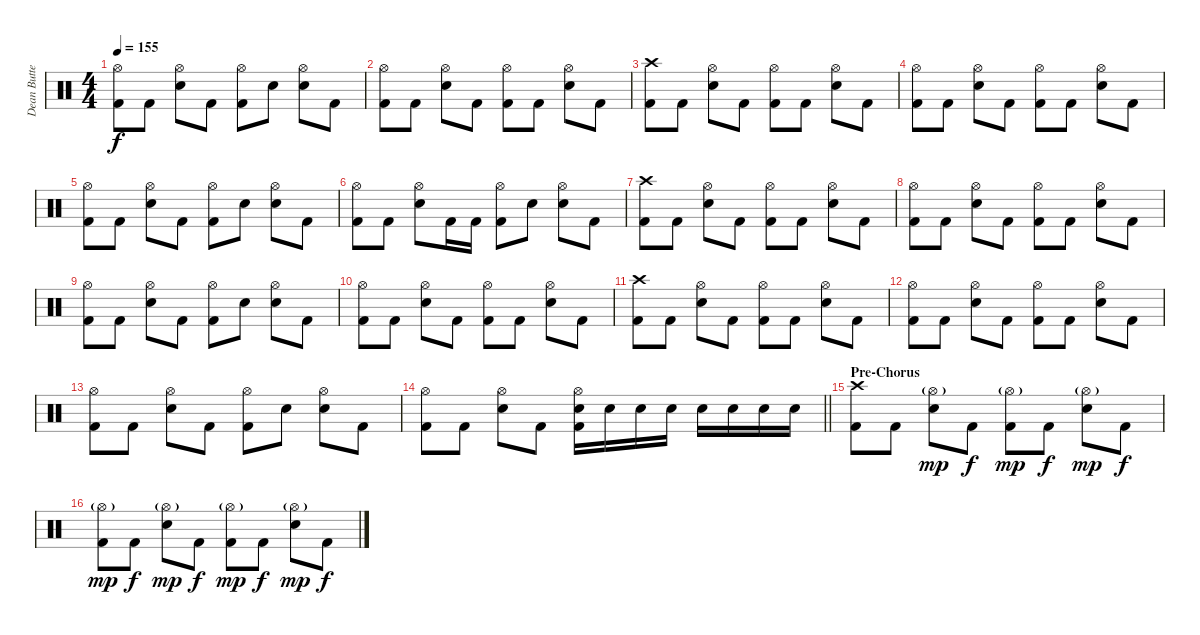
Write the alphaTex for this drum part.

\track ("Dean Butterworth [Drums]" "Dean Butte") {solo instrument percussion}
\staff {score}
\articulation defaults
\ts (4 4)
\tempo 155
\clef neutral
\ks c
("Hi-Hat (open)" "Kick (hit) 2").8{dy f} "Kick (hit) 2".8 ("Hi-Hat (open)" "Electric Snare (hit)").8 "Kick (hit) 2".8 ("Hi-Hat (open)" "Kick (hit) 2").8 "Electric Snare (hit)".8 ("Hi-Hat (open)" "Electric Snare (hit)").8 "Kick (hit) 2".8 |
("Hi-Hat (open)" "Kick (hit) 2").8 "Kick (hit) 2".8 ("Hi-Hat (open)" "Electric Snare (hit)").8 "Kick (hit) 2".8 ("Hi-Hat (open)" "Kick (hit) 2").8 "Kick (hit) 2".8 ("Hi-Hat (open)" "Electric Snare (hit)").8 "Kick (hit) 2".8 |
("Crash high (hit)" "Kick (hit) 2").8 "Kick (hit) 2".8 ("Hi-Hat (open)" "Electric Snare (hit)").8 "Kick (hit) 2".8 ("Hi-Hat (open)" "Kick (hit) 2").8 "Kick (hit) 2".8 ("Hi-Hat (open)" "Electric Snare (hit)").8 "Kick (hit) 2".8 |
("Hi-Hat (open)" "Kick (hit) 2").8 "Kick (hit) 2".8 ("Hi-Hat (open)" "Electric Snare (hit)").8 "Kick (hit) 2".8 ("Hi-Hat (open)" "Kick (hit) 2").8 "Kick (hit) 2".8 ("Hi-Hat (open)" "Electric Snare (hit)").8 "Kick (hit) 2".8 |
("Hi-Hat (open)" "Kick (hit) 2").8 "Kick (hit) 2".8 ("Hi-Hat (open)" "Electric Snare (hit)").8 "Kick (hit) 2".8 ("Hi-Hat (open)" "Kick (hit) 2").8 "Electric Snare (hit)".8 ("Hi-Hat (open)" "Electric Snare (hit)").8 "Kick (hit) 2".8 |
("Hi-Hat (open)" "Kick (hit) 2").8 "Kick (hit) 2".8 ("Hi-Hat (open)" "Electric Snare (hit)").8 "Kick (hit) 2".16 "Kick (hit) 2".16 ("Hi-Hat (open)" "Kick (hit) 2").8 "Electric Snare (hit)".8 ("Hi-Hat (open)" "Electric Snare (hit)").8 "Kick (hit) 2".8 |
("Crash high (hit)" "Kick (hit) 2").8 "Kick (hit) 2".8 ("Hi-Hat (open)" "Electric Snare (hit)").8 "Kick (hit) 2".8 ("Hi-Hat (open)" "Kick (hit) 2").8 "Kick (hit) 2".8 ("Hi-Hat (open)" "Electric Snare (hit)").8 "Kick (hit) 2".8 |
("Hi-Hat (open)" "Kick (hit) 2").8 "Kick (hit) 2".8 ("Hi-Hat (open)" "Electric Snare (hit)").8 "Kick (hit) 2".8 ("Hi-Hat (open)" "Kick (hit) 2").8 "Kick (hit) 2".8 ("Hi-Hat (open)" "Electric Snare (hit)").8 "Kick (hit) 2".8 |
("Hi-Hat (open)" "Kick (hit) 2").8 "Kick (hit) 2".8 ("Hi-Hat (open)" "Electric Snare (hit)").8 "Kick (hit) 2".8 ("Hi-Hat (open)" "Kick (hit) 2").8 "Electric Snare (hit)".8 ("Hi-Hat (open)" "Electric Snare (hit)").8 "Kick (hit) 2".8 |
("Hi-Hat (open)" "Kick (hit) 2").8 "Kick (hit) 2".8 ("Hi-Hat (open)" "Electric Snare (hit)").8 "Kick (hit) 2".8 ("Hi-Hat (open)" "Kick (hit) 2").8 "Kick (hit) 2".8 ("Hi-Hat (open)" "Electric Snare (hit)").8 "Kick (hit) 2".8 |
("Crash high (hit)" "Kick (hit) 2").8 "Kick (hit) 2".8 ("Hi-Hat (open)" "Electric Snare (hit)").8 "Kick (hit) 2".8 ("Hi-Hat (open)" "Kick (hit) 2").8 "Kick (hit) 2".8 ("Hi-Hat (open)" "Electric Snare (hit)").8 "Kick (hit) 2".8 |
("Hi-Hat (open)" "Kick (hit) 2").8 "Kick (hit) 2".8 ("Hi-Hat (open)" "Electric Snare (hit)").8 "Kick (hit) 2".8 ("Hi-Hat (open)" "Kick (hit) 2").8 "Kick (hit) 2".8 ("Hi-Hat (open)" "Electric Snare (hit)").8 "Kick (hit) 2".8 |
("Hi-Hat (open)" "Kick (hit) 2").8 "Kick (hit) 2".8 ("Hi-Hat (open)" "Electric Snare (hit)").8 "Kick (hit) 2".8 ("Hi-Hat (open)" "Kick (hit) 2").8 "Electric Snare (hit)".8 ("Hi-Hat (open)" "Electric Snare (hit)").8 "Kick (hit) 2".8 |
\barLineRight lightlight
("Hi-Hat (open)" "Kick (hit) 2").8 "Kick (hit) 2".8 ("Hi-Hat (open)" "Electric Snare (hit)").8 "Kick (hit) 2".8 ("Hi-Hat (open)" "Electric Snare (hit)" "Kick (hit) 2").16 "Electric Snare (hit)".16 "Electric Snare (hit)".16 "Electric Snare (hit)".16 "Electric Snare (hit)".16 "Electric Snare (hit)".16 "Electric Snare (hit)".16 "Electric Snare (hit)".16 |
\section ("" "Pre-Chorus")
("Crash high (hit)" "Kick (hit) 2").8 "Kick (hit) 2".8 ("Hi-Hat (open)"{g} "Electric Snare (hit)").8{dy mp} "Kick (hit) 2".8{dy f} ("Hi-Hat (open)"{g} "Kick (hit) 2").8{dy mp} "Kick (hit) 2".8{dy f} ("Hi-Hat (open)"{g} "Electric Snare (hit)").8{dy mp} "Kick (hit) 2".8{dy f} |
("Hi-Hat (open)"{g} "Kick (hit) 2").8{dy mp} "Kick (hit) 2".8{dy f} ("Hi-Hat (open)"{g} "Electric Snare (hit)").8{dy mp} "Kick (hit) 2".8{dy f} ("Hi-Hat (open)"{g} "Kick (hit) 2").8{dy mp} "Kick (hit) 2".8{dy f} ("Hi-Hat (open)"{g} "Electric Snare (hit)").8{dy mp} "Kick (hit) 2".8{dy f}
